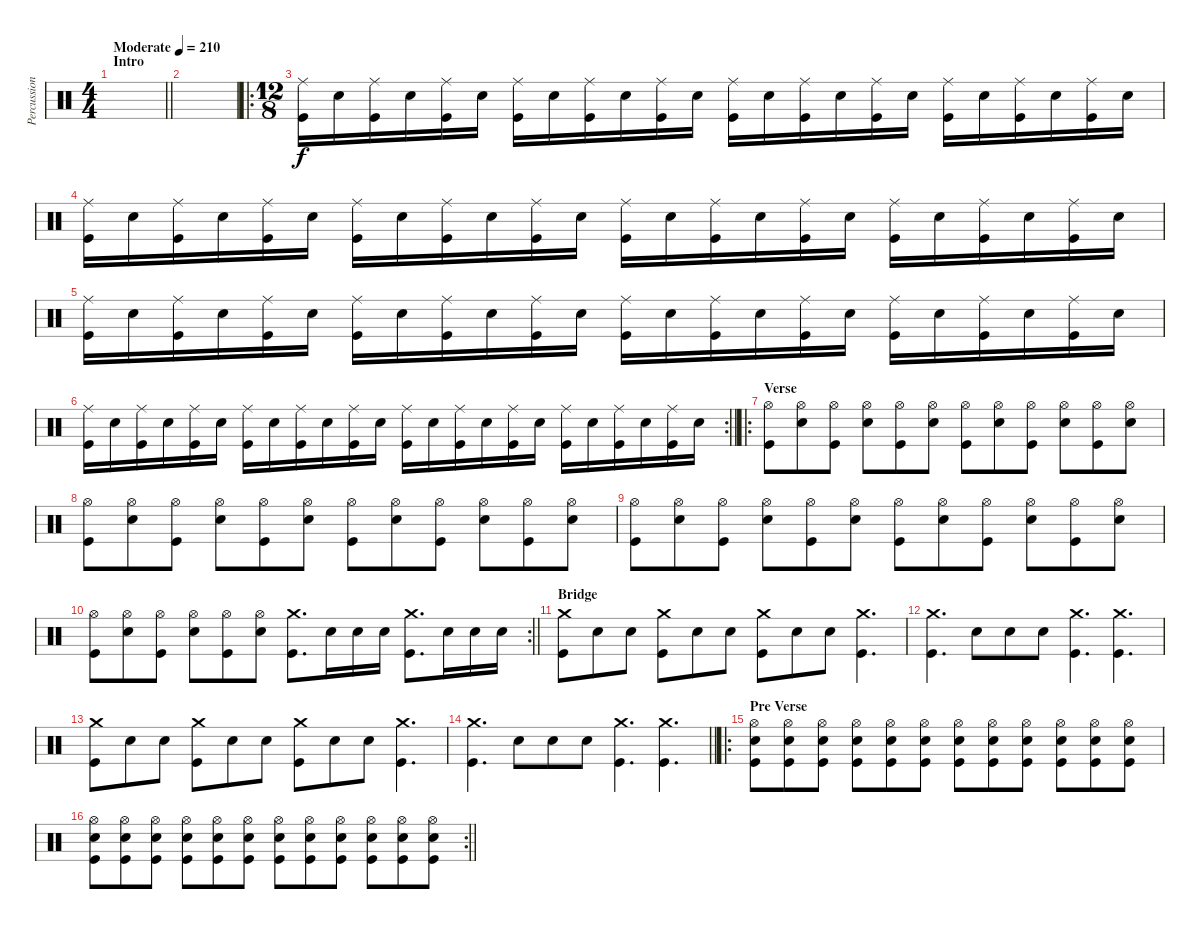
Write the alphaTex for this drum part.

\track ("Percussion" "Percussion") {instrument percussion}
\staff {score}
\articulation defaults
\ts (4 4)
\section ("" "Intro")
\tempo (210 "Moderate")
\clef neutral
\barLineRight lightlight
\ks c
|
\section ("" "")
|
\ro
\ts (12 8)
("Ride (middle)" "Kick (hit)").16 "Snare (hit) 2".16 ("Ride (middle)" "Kick (hit)").16 "Snare (hit) 2".16 ("Ride (middle)" "Kick (hit)").16 "Snare (hit) 2".16 ("Ride (middle)" "Kick (hit)").16 "Snare (hit) 2".16 ("Ride (middle)" "Kick (hit)").16 "Snare (hit) 2".16 ("Ride (middle)" "Kick (hit)").16 "Snare (hit) 2".16 ("Ride (middle)" "Kick (hit)").16 "Snare (hit) 2".16 ("Ride (middle)" "Kick (hit)").16 "Snare (hit) 2".16 ("Ride (middle)" "Kick (hit)").16 "Snare (hit) 2".16 ("Ride (middle)" "Kick (hit)").16 "Snare (hit) 2".16 ("Ride (middle)" "Kick (hit)").16 "Snare (hit) 2".16 ("Ride (middle)" "Kick (hit)").16 "Snare (hit) 2".16 |
("Ride (middle)" "Kick (hit)").16 "Snare (hit) 2".16 ("Ride (middle)" "Kick (hit)").16 "Snare (hit) 2".16 ("Ride (middle)" "Kick (hit)").16 "Snare (hit) 2".16 ("Ride (middle)" "Kick (hit)").16 "Snare (hit) 2".16 ("Ride (middle)" "Kick (hit)").16 "Snare (hit) 2".16 ("Ride (middle)" "Kick (hit)").16 "Snare (hit) 2".16 ("Ride (middle)" "Kick (hit)").16 "Snare (hit) 2".16 ("Ride (middle)" "Kick (hit)").16 "Snare (hit) 2".16 ("Ride (middle)" "Kick (hit)").16 "Snare (hit) 2".16 ("Ride (middle)" "Kick (hit)").16 "Snare (hit) 2".16 ("Ride (middle)" "Kick (hit)").16 "Snare (hit) 2".16 ("Ride (middle)" "Kick (hit)").16 "Snare (hit) 2".16 |
("Ride (middle)" "Kick (hit)").16 "Snare (hit) 2".16 ("Ride (middle)" "Kick (hit)").16 "Snare (hit) 2".16 ("Ride (middle)" "Kick (hit)").16 "Snare (hit) 2".16 ("Ride (middle)" "Kick (hit)").16 "Snare (hit) 2".16 ("Ride (middle)" "Kick (hit)").16 "Snare (hit) 2".16 ("Ride (middle)" "Kick (hit)").16 "Snare (hit) 2".16 ("Ride (middle)" "Kick (hit)").16 "Snare (hit) 2".16 ("Ride (middle)" "Kick (hit)").16 "Snare (hit) 2".16 ("Ride (middle)" "Kick (hit)").16 "Snare (hit) 2".16 ("Ride (middle)" "Kick (hit)").16 "Snare (hit) 2".16 ("Ride (middle)" "Kick (hit)").16 "Snare (hit) 2".16 ("Ride (middle)" "Kick (hit)").16 "Snare (hit) 2".16 |
\rc 2
\barLineRight lightlight
("Ride (middle)" "Kick (hit)").16 "Snare (hit) 2".16 ("Ride (middle)" "Kick (hit)").16 "Snare (hit) 2".16 ("Ride (middle)" "Kick (hit)").16 "Snare (hit) 2".16 ("Ride (middle)" "Kick (hit)").16 "Snare (hit) 2".16 ("Ride (middle)" "Kick (hit)").16 "Snare (hit) 2".16 ("Ride (middle)" "Kick (hit)").16 "Snare (hit) 2".16 ("Ride (middle)" "Kick (hit)").16 "Snare (hit) 2".16 ("Ride (middle)" "Kick (hit)").16 "Snare (hit) 2".16 ("Ride (middle)" "Kick (hit)").16 "Snare (hit) 2".16 ("Ride (middle)" "Kick (hit)").16 "Snare (hit) 2".16 ("Ride (middle)" "Kick (hit)").16 "Snare (hit) 2".16 ("Ride (middle)" "Kick (hit)").16 "Snare (hit) 2".16 |
\ro
\section ("" "Verse")
("Hi-Hat (open)" "Kick (hit)").8 ("Hi-Hat (open)" "Snare (hit) 2").8 ("Hi-Hat (open)" "Kick (hit)").8 ("Hi-Hat (open)" "Snare (hit) 2").8 ("Hi-Hat (open)" "Kick (hit)").8 ("Hi-Hat (open)" "Snare (hit) 2").8 ("Hi-Hat (open)" "Kick (hit)").8 ("Hi-Hat (open)" "Snare (hit) 2").8 ("Hi-Hat (open)" "Kick (hit)").8 ("Hi-Hat (open)" "Snare (hit) 2").8 ("Hi-Hat (open)" "Kick (hit)").8 ("Hi-Hat (open)" "Snare (hit) 2").8 |
("Hi-Hat (open)" "Kick (hit)").8 ("Hi-Hat (open)" "Snare (hit) 2").8 ("Hi-Hat (open)" "Kick (hit)").8 ("Hi-Hat (open)" "Snare (hit) 2").8 ("Hi-Hat (open)" "Kick (hit)").8 ("Hi-Hat (open)" "Snare (hit) 2").8 ("Hi-Hat (open)" "Kick (hit)").8 ("Hi-Hat (open)" "Snare (hit) 2").8 ("Hi-Hat (open)" "Kick (hit)").8 ("Hi-Hat (open)" "Snare (hit) 2").8 ("Hi-Hat (open)" "Kick (hit)").8 ("Hi-Hat (open)" "Snare (hit) 2").8 |
("Hi-Hat (open)" "Kick (hit)").8 ("Hi-Hat (open)" "Snare (hit) 2").8 ("Hi-Hat (open)" "Kick (hit)").8 ("Hi-Hat (open)" "Snare (hit) 2").8 ("Hi-Hat (open)" "Kick (hit)").8 ("Hi-Hat (open)" "Snare (hit) 2").8 ("Hi-Hat (open)" "Kick (hit)").8 ("Hi-Hat (open)" "Snare (hit) 2").8 ("Hi-Hat (open)" "Kick (hit)").8 ("Hi-Hat (open)" "Snare (hit) 2").8 ("Hi-Hat (open)" "Kick (hit)").8 ("Hi-Hat (open)" "Snare (hit) 2").8 |
\rc 2
\barLineRight lightlight
("Hi-Hat (open)" "Kick (hit)").8 ("Hi-Hat (open)" "Snare (hit) 2").8 ("Hi-Hat (open)" "Kick (hit)").8 ("Hi-Hat (open)" "Snare (hit) 2").8 ("Hi-Hat (open)" "Kick (hit)").8 ("Hi-Hat (open)" "Snare (hit) 2").8 ("Crash medium (hit)" "Kick (hit)").8{d} "Snare (hit) 2".16 "Snare (hit) 2".16 "Snare (hit) 2".16 ("Crash medium (hit)" "Kick (hit)").8{d} "Snare (hit) 2".16 "Snare (hit) 2".16 "Snare (hit) 2".16 |
\section ("" "Bridge")
("Crash medium (hit)" "Kick (hit)").8 "Snare (hit) 2".8 "Snare (hit) 2".8 ("Crash medium (hit)" "Kick (hit)").8 "Snare (hit) 2".8 "Snare (hit) 2".8 ("Crash medium (hit)" "Kick (hit)").8 "Snare (hit) 2".8 "Snare (hit) 2".8 ("Crash medium (hit)" "Kick (hit)").4{d} |
("Crash medium (hit)" "Kick (hit)").4{d} "Snare (hit) 2".8 "Snare (hit) 2".8 "Snare (hit) 2".8 ("Crash medium (hit)" "Kick (hit)").4{d} ("Crash medium (hit)" "Kick (hit)").4{d} |
("Crash medium (hit)" "Kick (hit)").8 "Snare (hit) 2".8 "Snare (hit) 2".8 ("Crash medium (hit)" "Kick (hit)").8 "Snare (hit) 2".8 "Snare (hit) 2".8 ("Crash medium (hit)" "Kick (hit)").8 "Snare (hit) 2".8 "Snare (hit) 2".8 ("Crash medium (hit)" "Kick (hit)").4{d} |
\barLineRight lightlight
("Crash medium (hit)" "Kick (hit)").4{d} "Snare (hit) 2".8 "Snare (hit) 2".8 "Snare (hit) 2".8 ("Crash medium (hit)" "Kick (hit)").4{d} ("Crash medium (hit)" "Kick (hit)").4{d} |
\ro
\section ("" "Pre Verse")
("Hi-Hat (open)" "Snare (hit) 2" "Kick (hit)").8 ("Hi-Hat (open)" "Snare (hit) 2" "Kick (hit)").8 ("Hi-Hat (open)" "Snare (hit) 2" "Kick (hit)").8 ("Hi-Hat (open)" "Snare (hit) 2" "Kick (hit)").8 ("Hi-Hat (open)" "Snare (hit) 2" "Kick (hit)").8 ("Hi-Hat (open)" "Snare (hit) 2" "Kick (hit)").8 ("Hi-Hat (open)" "Snare (hit) 2" "Kick (hit)").8 ("Hi-Hat (open)" "Snare (hit) 2" "Kick (hit)").8 ("Hi-Hat (open)" "Snare (hit) 2" "Kick (hit)").8 ("Hi-Hat (open)" "Snare (hit) 2" "Kick (hit)").8 ("Hi-Hat (open)" "Snare (hit) 2" "Kick (hit)").8 ("Hi-Hat (open)" "Snare (hit) 2" "Kick (hit)").8 |
\rc 2
\barLineRight lightlight
("Hi-Hat (open)" "Snare (hit) 2" "Kick (hit)").8 ("Hi-Hat (open)" "Snare (hit) 2" "Kick (hit)").8 ("Hi-Hat (open)" "Snare (hit) 2" "Kick (hit)").8 ("Hi-Hat (open)" "Snare (hit) 2" "Kick (hit)").8 ("Hi-Hat (open)" "Snare (hit) 2" "Kick (hit)").8 ("Hi-Hat (open)" "Snare (hit) 2" "Kick (hit)").8 ("Hi-Hat (open)" "Snare (hit) 2" "Kick (hit)").8 ("Hi-Hat (open)" "Snare (hit) 2" "Kick (hit)").8 ("Hi-Hat (open)" "Snare (hit) 2" "Kick (hit)").8 ("Hi-Hat (open)" "Snare (hit) 2" "Kick (hit)").8 ("Hi-Hat (open)" "Snare (hit) 2" "Kick (hit)").8 ("Hi-Hat (open)" "Snare (hit) 2" "Kick (hit)").8
